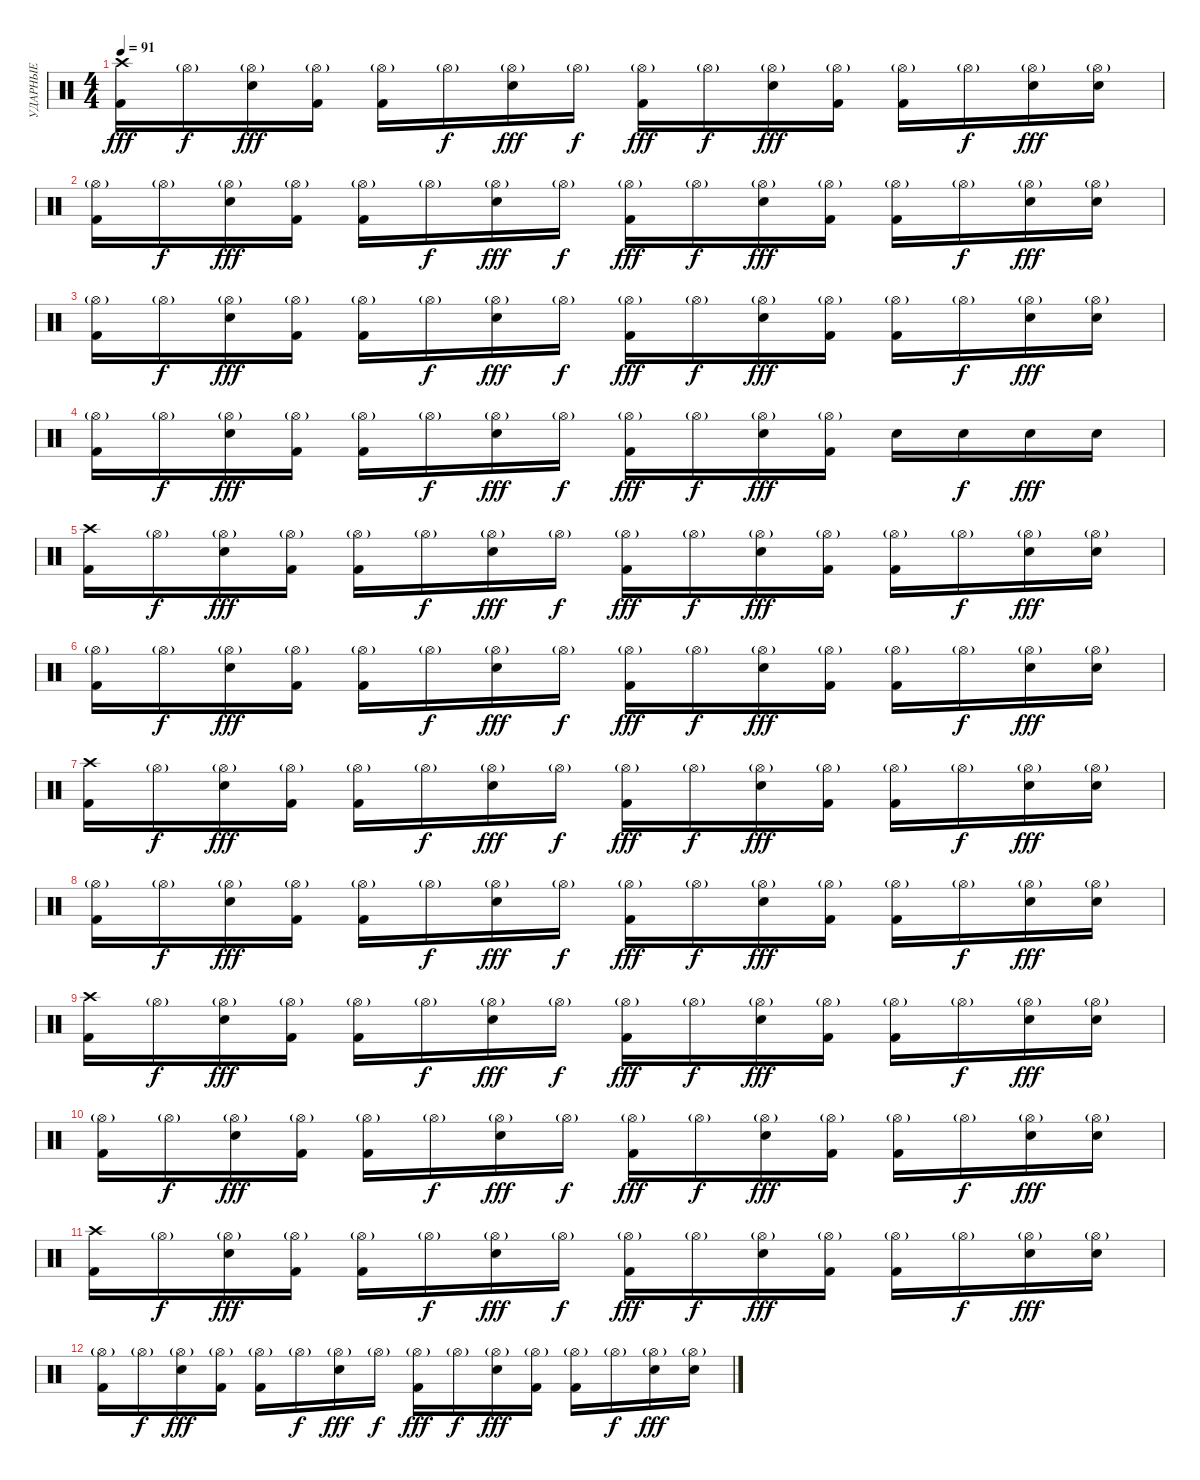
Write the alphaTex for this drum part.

\track ("УДАРНЫЕ" "УДАРНЫЕ") {instrument percussion}
\staff {score}
\articulation defaults
\ts (4 4)
\tempo 91
\clef neutral
\ks c
("Crash high (hit)" "Kick (hit) 2").16{dy fff} "Hi-Hat (open)"{g}.16{dy f} ("Hi-Hat (open)"{g} "Snare (hit) 2").16{dy fff} ("Hi-Hat (open)"{g} "Kick (hit) 2").16 ("Hi-Hat (open)"{g} "Kick (hit) 2").16 "Hi-Hat (open)"{g}.16{dy f} ("Hi-Hat (open)"{g} "Snare (hit) 2").16{dy fff} "Hi-Hat (open)"{g}.16{dy f} ("Hi-Hat (open)"{g} "Kick (hit) 2").16{dy fff} "Hi-Hat (open)"{g}.16{dy f} ("Hi-Hat (open)"{g} "Snare (hit) 2").16{dy fff} ("Hi-Hat (open)"{g} "Kick (hit) 2").16 ("Hi-Hat (open)"{g} "Kick (hit) 2").16 "Hi-Hat (open)"{g}.16{dy f} ("Hi-Hat (open)"{g} "Snare (hit) 2").16{dy fff} ("Hi-Hat (open)"{g} "Snare (hit) 2").16 |
("Hi-Hat (open)"{g} "Kick (hit) 2").16 "Hi-Hat (open)"{g}.16{dy f} ("Hi-Hat (open)"{g} "Snare (hit) 2").16{dy fff} ("Hi-Hat (open)"{g} "Kick (hit) 2").16 ("Hi-Hat (open)"{g} "Kick (hit) 2").16 "Hi-Hat (open)"{g}.16{dy f} ("Hi-Hat (open)"{g} "Snare (hit) 2").16{dy fff} "Hi-Hat (open)"{g}.16{dy f} ("Hi-Hat (open)"{g} "Kick (hit) 2").16{dy fff} "Hi-Hat (open)"{g}.16{dy f} ("Hi-Hat (open)"{g} "Snare (hit) 2").16{dy fff} ("Hi-Hat (open)"{g} "Kick (hit) 2").16 ("Hi-Hat (open)"{g} "Kick (hit) 2").16 "Hi-Hat (open)"{g}.16{dy f} ("Hi-Hat (open)"{g} "Snare (hit) 2").16{dy fff} ("Hi-Hat (open)"{g} "Snare (hit) 2").16 |
("Hi-Hat (open)"{g} "Kick (hit) 2").16 "Hi-Hat (open)"{g}.16{dy f} ("Hi-Hat (open)"{g} "Snare (hit) 2").16{dy fff} ("Hi-Hat (open)"{g} "Kick (hit) 2").16 ("Hi-Hat (open)"{g} "Kick (hit) 2").16 "Hi-Hat (open)"{g}.16{dy f} ("Hi-Hat (open)"{g} "Snare (hit) 2").16{dy fff} "Hi-Hat (open)"{g}.16{dy f} ("Hi-Hat (open)"{g} "Kick (hit) 2").16{dy fff} "Hi-Hat (open)"{g}.16{dy f} ("Hi-Hat (open)"{g} "Snare (hit) 2").16{dy fff} ("Hi-Hat (open)"{g} "Kick (hit) 2").16 ("Hi-Hat (open)"{g} "Kick (hit) 2").16 "Hi-Hat (open)"{g}.16{dy f} ("Hi-Hat (open)"{g} "Snare (hit) 2").16{dy fff} ("Hi-Hat (open)"{g} "Snare (hit) 2").16 |
("Hi-Hat (open)"{g} "Kick (hit) 2").16 "Hi-Hat (open)"{g}.16{dy f} ("Hi-Hat (open)"{g} "Snare (hit) 2").16{dy fff} ("Hi-Hat (open)"{g} "Kick (hit) 2").16 ("Hi-Hat (open)"{g} "Kick (hit) 2").16 "Hi-Hat (open)"{g}.16{dy f} ("Hi-Hat (open)"{g} "Snare (hit) 2").16{dy fff} "Hi-Hat (open)"{g}.16{dy f} ("Hi-Hat (open)"{g} "Kick (hit) 2").16{dy fff} "Hi-Hat (open)"{g}.16{dy f} ("Hi-Hat (open)"{g} "Snare (hit) 2").16{dy fff} ("Hi-Hat (open)"{g} "Kick (hit) 2").16 "Snare (hit) 2".16 "Snare (hit) 2".16{dy f} "Snare (hit) 2".16{dy fff} "Snare (hit) 2".16 |
("Crash high (hit)" "Kick (hit) 2").16 "Hi-Hat (open)"{g}.16{dy f} ("Hi-Hat (open)"{g} "Snare (hit) 2").16{dy fff} ("Hi-Hat (open)"{g} "Kick (hit) 2").16 ("Hi-Hat (open)"{g} "Kick (hit) 2").16 "Hi-Hat (open)"{g}.16{dy f} ("Hi-Hat (open)"{g} "Snare (hit) 2").16{dy fff} "Hi-Hat (open)"{g}.16{dy f} ("Hi-Hat (open)"{g} "Kick (hit) 2").16{dy fff} "Hi-Hat (open)"{g}.16{dy f} ("Hi-Hat (open)"{g} "Snare (hit) 2").16{dy fff} ("Hi-Hat (open)"{g} "Kick (hit) 2").16 ("Hi-Hat (open)"{g} "Kick (hit) 2").16 "Hi-Hat (open)"{g}.16{dy f} ("Hi-Hat (open)"{g} "Snare (hit) 2").16{dy fff} ("Hi-Hat (open)"{g} "Snare (hit) 2").16 |
("Hi-Hat (open)"{g} "Kick (hit) 2").16 "Hi-Hat (open)"{g}.16{dy f} ("Hi-Hat (open)"{g} "Snare (hit) 2").16{dy fff} ("Hi-Hat (open)"{g} "Kick (hit) 2").16 ("Hi-Hat (open)"{g} "Kick (hit) 2").16 "Hi-Hat (open)"{g}.16{dy f} ("Hi-Hat (open)"{g} "Snare (hit) 2").16{dy fff} "Hi-Hat (open)"{g}.16{dy f} ("Hi-Hat (open)"{g} "Kick (hit) 2").16{dy fff} "Hi-Hat (open)"{g}.16{dy f} ("Hi-Hat (open)"{g} "Snare (hit) 2").16{dy fff} ("Hi-Hat (open)"{g} "Kick (hit) 2").16 ("Hi-Hat (open)"{g} "Kick (hit) 2").16 "Hi-Hat (open)"{g}.16{dy f} ("Hi-Hat (open)"{g} "Snare (hit) 2").16{dy fff} ("Hi-Hat (open)"{g} "Snare (hit) 2").16 |
("Crash high (hit)" "Kick (hit) 2").16 "Hi-Hat (open)"{g}.16{dy f} ("Hi-Hat (open)"{g} "Snare (hit) 2").16{dy fff} ("Hi-Hat (open)"{g} "Kick (hit) 2").16 ("Hi-Hat (open)"{g} "Kick (hit) 2").16 "Hi-Hat (open)"{g}.16{dy f} ("Hi-Hat (open)"{g} "Snare (hit) 2").16{dy fff} "Hi-Hat (open)"{g}.16{dy f} ("Hi-Hat (open)"{g} "Kick (hit) 2").16{dy fff} "Hi-Hat (open)"{g}.16{dy f} ("Hi-Hat (open)"{g} "Snare (hit) 2").16{dy fff} ("Hi-Hat (open)"{g} "Kick (hit) 2").16 ("Hi-Hat (open)"{g} "Kick (hit) 2").16 "Hi-Hat (open)"{g}.16{dy f} ("Hi-Hat (open)"{g} "Snare (hit) 2").16{dy fff} ("Hi-Hat (open)"{g} "Snare (hit) 2").16 |
("Hi-Hat (open)"{g} "Kick (hit) 2").16 "Hi-Hat (open)"{g}.16{dy f} ("Hi-Hat (open)"{g} "Snare (hit) 2").16{dy fff} ("Hi-Hat (open)"{g} "Kick (hit) 2").16 ("Hi-Hat (open)"{g} "Kick (hit) 2").16 "Hi-Hat (open)"{g}.16{dy f} ("Hi-Hat (open)"{g} "Snare (hit) 2").16{dy fff} "Hi-Hat (open)"{g}.16{dy f} ("Hi-Hat (open)"{g} "Kick (hit) 2").16{dy fff} "Hi-Hat (open)"{g}.16{dy f} ("Hi-Hat (open)"{g} "Snare (hit) 2").16{dy fff} ("Hi-Hat (open)"{g} "Kick (hit) 2").16 ("Hi-Hat (open)"{g} "Kick (hit) 2").16 "Hi-Hat (open)"{g}.16{dy f} ("Hi-Hat (open)"{g} "Snare (hit) 2").16{dy fff} ("Hi-Hat (open)"{g} "Snare (hit) 2").16 |
("Crash high (hit)" "Kick (hit) 2").16 "Hi-Hat (open)"{g}.16{dy f} ("Hi-Hat (open)"{g} "Snare (hit) 2").16{dy fff} ("Hi-Hat (open)"{g} "Kick (hit) 2").16 ("Hi-Hat (open)"{g} "Kick (hit) 2").16 "Hi-Hat (open)"{g}.16{dy f} ("Hi-Hat (open)"{g} "Snare (hit) 2").16{dy fff} "Hi-Hat (open)"{g}.16{dy f} ("Hi-Hat (open)"{g} "Kick (hit) 2").16{dy fff} "Hi-Hat (open)"{g}.16{dy f} ("Hi-Hat (open)"{g} "Snare (hit) 2").16{dy fff} ("Hi-Hat (open)"{g} "Kick (hit) 2").16 ("Hi-Hat (open)"{g} "Kick (hit) 2").16 "Hi-Hat (open)"{g}.16{dy f} ("Hi-Hat (open)"{g} "Snare (hit) 2").16{dy fff} ("Hi-Hat (open)"{g} "Snare (hit) 2").16 |
("Hi-Hat (open)"{g} "Kick (hit) 2").16 "Hi-Hat (open)"{g}.16{dy f} ("Hi-Hat (open)"{g} "Snare (hit) 2").16{dy fff} ("Hi-Hat (open)"{g} "Kick (hit) 2").16 ("Hi-Hat (open)"{g} "Kick (hit) 2").16 "Hi-Hat (open)"{g}.16{dy f} ("Hi-Hat (open)"{g} "Snare (hit) 2").16{dy fff} "Hi-Hat (open)"{g}.16{dy f} ("Hi-Hat (open)"{g} "Kick (hit) 2").16{dy fff} "Hi-Hat (open)"{g}.16{dy f} ("Hi-Hat (open)"{g} "Snare (hit) 2").16{dy fff} ("Hi-Hat (open)"{g} "Kick (hit) 2").16 ("Hi-Hat (open)"{g} "Kick (hit) 2").16 "Hi-Hat (open)"{g}.16{dy f} ("Hi-Hat (open)"{g} "Snare (hit) 2").16{dy fff} ("Hi-Hat (open)"{g} "Snare (hit) 2").16 |
("Crash high (hit)" "Kick (hit) 2").16 "Hi-Hat (open)"{g}.16{dy f} ("Hi-Hat (open)"{g} "Snare (hit) 2").16{dy fff} ("Hi-Hat (open)"{g} "Kick (hit) 2").16 ("Hi-Hat (open)"{g} "Kick (hit) 2").16 "Hi-Hat (open)"{g}.16{dy f} ("Hi-Hat (open)"{g} "Snare (hit) 2").16{dy fff} "Hi-Hat (open)"{g}.16{dy f} ("Hi-Hat (open)"{g} "Kick (hit) 2").16{dy fff} "Hi-Hat (open)"{g}.16{dy f} ("Hi-Hat (open)"{g} "Snare (hit) 2").16{dy fff} ("Hi-Hat (open)"{g} "Kick (hit) 2").16 ("Hi-Hat (open)"{g} "Kick (hit) 2").16 "Hi-Hat (open)"{g}.16{dy f} ("Hi-Hat (open)"{g} "Snare (hit) 2").16{dy fff} ("Hi-Hat (open)"{g} "Snare (hit) 2").16 |
("Hi-Hat (open)"{g} "Kick (hit) 2").16 "Hi-Hat (open)"{g}.16{dy f} ("Hi-Hat (open)"{g} "Snare (hit) 2").16{dy fff} ("Hi-Hat (open)"{g} "Kick (hit) 2").16 ("Hi-Hat (open)"{g} "Kick (hit) 2").16 "Hi-Hat (open)"{g}.16{dy f} ("Hi-Hat (open)"{g} "Snare (hit) 2").16{dy fff} "Hi-Hat (open)"{g}.16{dy f} ("Hi-Hat (open)"{g} "Kick (hit) 2").16{dy fff} "Hi-Hat (open)"{g}.16{dy f} ("Hi-Hat (open)"{g} "Snare (hit) 2").16{dy fff} ("Hi-Hat (open)"{g} "Kick (hit) 2").16 ("Hi-Hat (open)"{g} "Kick (hit) 2").16 "Hi-Hat (open)"{g}.16{dy f} ("Hi-Hat (open)"{g} "Snare (hit) 2").16{dy fff} ("Hi-Hat (open)"{g} "Snare (hit) 2").16
